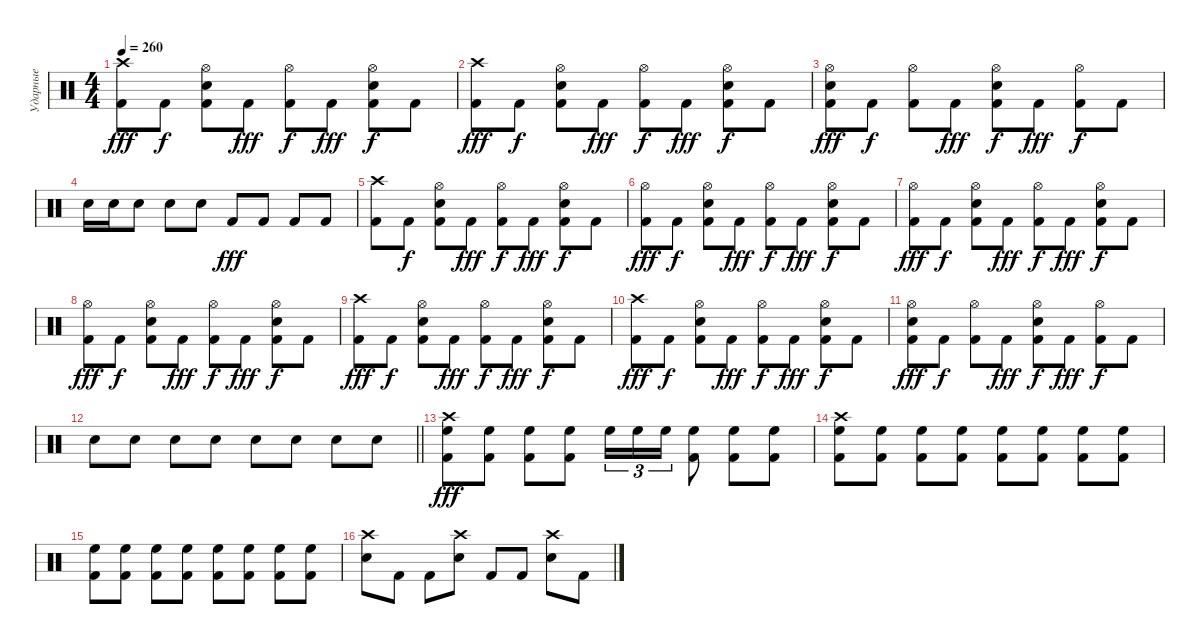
\track ("Ударные" "Ударные") {instrument percussion}
\staff {score}
\articulation defaults
\ts (4 4)
\tempo 260
\clef neutral
\ks c
("Kick (hit) 2" "Crash high (hit)").8{dy fff} "Kick (hit) 2".8{dy f} ("Kick (hit) 2" "Snare (hit) 2" "Hi-Hat (open)").8 "Kick (hit) 2".8{dy fff} ("Kick (hit) 2" "Hi-Hat (open)").8{dy f} "Kick (hit) 2".8{dy fff} ("Kick (hit) 2" "Snare (hit) 2" "Hi-Hat (open)").8{dy f} "Kick (hit) 2".8 |
("Kick (hit) 2" "Crash high (hit)").8{dy fff} "Kick (hit) 2".8{dy f} ("Kick (hit) 2" "Snare (hit) 2" "Hi-Hat (open)").8 "Kick (hit) 2".8{dy fff} ("Kick (hit) 2" "Hi-Hat (open)").8{dy f} "Kick (hit) 2".8{dy fff} ("Kick (hit) 2" "Snare (hit) 2" "Hi-Hat (open)").8{dy f} "Kick (hit) 2".8 |
("Kick (hit) 2" "Snare (hit) 2" "Hi-Hat (open)").8{dy fff} "Kick (hit) 2".8{dy f} ("Kick (hit) 2" "Hi-Hat (open)").8 "Kick (hit) 2".8{dy fff} ("Kick (hit) 2" "Snare (hit) 2" "Hi-Hat (open)").8{dy f} "Kick (hit) 2".8{dy fff} ("Kick (hit) 2" "Hi-Hat (open)").8{dy f} "Kick (hit) 2".8 |
"Snare (hit) 2".16 "Snare (hit) 2".16 "Snare (hit) 2".8 "Snare (hit) 2".8 "Snare (hit) 2".8 "Kick (hit) 2".8{dy fff} "Kick (hit) 2".8 "Kick (hit) 2".8 "Kick (hit) 2".8 |
("Kick (hit) 2" "Crash high (hit)").8 "Kick (hit) 2".8{dy f} ("Kick (hit) 2" "Snare (hit) 2" "Hi-Hat (open)").8 "Kick (hit) 2".8{dy fff} ("Kick (hit) 2" "Hi-Hat (open)").8{dy f} "Kick (hit) 2".8{dy fff} ("Kick (hit) 2" "Snare (hit) 2" "Hi-Hat (open)").8{dy f} "Kick (hit) 2".8 |
("Kick (hit) 2" "Hi-Hat (open)").8{dy fff} "Kick (hit) 2".8{dy f} ("Kick (hit) 2" "Snare (hit) 2" "Hi-Hat (open)").8 "Kick (hit) 2".8{dy fff} ("Kick (hit) 2" "Hi-Hat (open)").8{dy f} "Kick (hit) 2".8{dy fff} ("Kick (hit) 2" "Snare (hit) 2" "Hi-Hat (open)").8{dy f} "Kick (hit) 2".8 |
("Kick (hit) 2" "Hi-Hat (open)").8{dy fff} "Kick (hit) 2".8{dy f} ("Kick (hit) 2" "Snare (hit) 2" "Hi-Hat (open)").8 "Kick (hit) 2".8{dy fff} ("Kick (hit) 2" "Hi-Hat (open)").8{dy f} "Kick (hit) 2".8{dy fff} ("Kick (hit) 2" "Snare (hit) 2" "Hi-Hat (open)").8{dy f} "Kick (hit) 2".8 |
("Kick (hit) 2" "Hi-Hat (open)").8{dy fff} "Kick (hit) 2".8{dy f} ("Kick (hit) 2" "Snare (hit) 2" "Hi-Hat (open)").8 "Kick (hit) 2".8{dy fff} ("Kick (hit) 2" "Hi-Hat (open)").8{dy f} "Kick (hit) 2".8{dy fff} ("Kick (hit) 2" "Snare (hit) 2" "Hi-Hat (open)").8{dy f} "Kick (hit) 2".8 |
("Kick (hit) 2" "Crash high (hit)").8{dy fff} "Kick (hit) 2".8{dy f} ("Kick (hit) 2" "Snare (hit) 2" "Hi-Hat (open)").8 "Kick (hit) 2".8{dy fff} ("Kick (hit) 2" "Hi-Hat (open)").8{dy f} "Kick (hit) 2".8{dy fff} ("Kick (hit) 2" "Snare (hit) 2" "Hi-Hat (open)").8{dy f} "Kick (hit) 2".8 |
("Kick (hit) 2" "Crash high (hit)").8{dy fff} "Kick (hit) 2".8{dy f} ("Kick (hit) 2" "Snare (hit) 2" "Hi-Hat (open)").8 "Kick (hit) 2".8{dy fff} ("Kick (hit) 2" "Hi-Hat (open)").8{dy f} "Kick (hit) 2".8{dy fff} ("Kick (hit) 2" "Snare (hit) 2" "Hi-Hat (open)").8{dy f} "Kick (hit) 2".8 |
("Kick (hit) 2" "Snare (hit) 2" "Hi-Hat (open)").8{dy fff} "Kick (hit) 2".8{dy f} ("Kick (hit) 2" "Hi-Hat (open)").8 "Kick (hit) 2".8{dy fff} ("Kick (hit) 2" "Snare (hit) 2" "Hi-Hat (open)").8{dy f} "Kick (hit) 2".8{dy fff} ("Kick (hit) 2" "Hi-Hat (open)").8{dy f} "Kick (hit) 2".8 |
\barLineRight lightlight "Snare (hit) 2".8 "Snare (hit) 2".8 "Snare (hit) 2".8 "Snare (hit) 2".8 "Snare (hit) 2".8 "Snare (hit) 2".8 "Snare (hit) 2".8 "Snare (hit) 2".8
|
("Kick (hit) 2" "High Floor Tom (hit)" "Crash high (hit)").8{dy fff} ("Kick (hit) 2" "High Floor Tom (hit)").8 ("Kick (hit) 2" "High Floor Tom (hit)").8 ("Kick (hit) 2" "High Floor Tom (hit)").8 "High Floor Tom (hit)".16{tu (3 2)} "High Floor Tom (hit)".16{tu (3 2)} "High Floor Tom (hit)".16{tu (3 2)} ("Kick (hit) 2" "High Floor Tom (hit)").8 ("Kick (hit) 2" "High Floor Tom (hit)").8 ("Kick (hit) 2" "High Floor Tom (hit)").8 |
("Kick (hit) 2" "High Floor Tom (hit)" "Crash high (hit)").8 ("Kick (hit) 2" "High Floor Tom (hit)").8 ("Kick (hit) 2" "High Floor Tom (hit)").8 ("Kick (hit) 2" "High Floor Tom (hit)").8 ("Kick (hit) 2" "High Floor Tom (hit)").8 ("Kick (hit) 2" "High Floor Tom (hit)").8 ("Kick (hit) 2" "High Floor Tom (hit)").8 ("Kick (hit) 2" "High Floor Tom (hit)").8 |
("Kick (hit) 2" "High Floor Tom (hit)").8 ("Kick (hit) 2" "High Floor Tom (hit)").8 ("Kick (hit) 2" "High Floor Tom (hit)").8 ("Kick (hit) 2" "High Floor Tom (hit)").8 ("Kick (hit) 2" "High Floor Tom (hit)").8 ("Kick (hit) 2" "High Floor Tom (hit)").8 ("Kick (hit) 2" "High Floor Tom (hit)").8 ("Kick (hit) 2" "High Floor Tom (hit)").8 |
("Snare (hit) 2" "Crash high (hit)").8 "Kick (hit) 2".8 "Kick (hit) 2".8 ("Snare (hit) 2" "Crash high (hit)").8 "Kick (hit) 2".8 "Kick (hit) 2".8 ("Snare (hit) 2" "Crash high (hit)").8 "Kick (hit) 2".8
